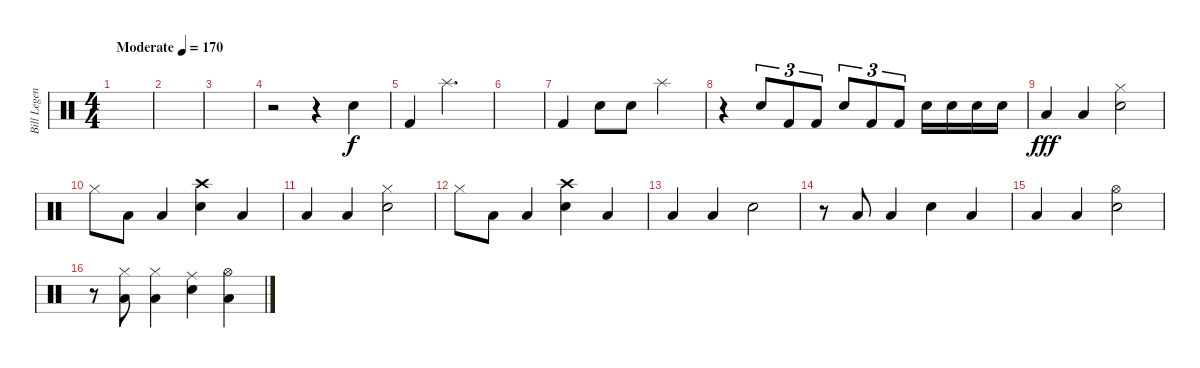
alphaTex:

\track ("Bill Legend" "Bill Legen") {instrument percussion}
\staff {score}
\articulation defaults
\ts (4 4)
\tempo (170 "Moderate")
\clef neutral
\ks c
|
|
|
r.2 r.4 "Electric Snare (hit)".4 |
"Kick (hit) 2".4 "Splash (hit)".2{d} |
|
"Kick (hit) 2".4 "Electric Snare (hit)".8 "Electric Snare (hit)".8 "Splash (hit)".2 |
r.4 "Electric Snare (hit)".8{tu (3 2) dy f} "Kick (hit) 2".8{tu (3 2)} "Kick (hit) 2".8{tu (3 2)} "Electric Snare (hit)".8{tu (3 2)} "Kick (hit) 2".8{tu (3 2)} "Kick (hit) 2".8{tu (3 2)} "Electric Snare (hit)".16 "Electric Snare (hit)".16 "Electric Snare (hit)".16 "Electric Snare (hit)".16 |
"Low Floor Tom (hit)".4{dy fff} "Low Floor Tom (hit)".4 ("Electric Snare (hit)" "Hi-Hat (closed)").2 |
"Hi-Hat (closed)".8 "Low Floor Tom (hit)".8 "Low Floor Tom (hit)".4 ("Electric Snare (hit)" "Crash high (hit)").4 "Low Floor Tom (hit)".4 |
"Low Floor Tom (hit)".4 "Low Floor Tom (hit)".4 ("Electric Snare (hit)" "Hi-Hat (closed)").2 |
"Hi-Hat (closed)".8 "Low Floor Tom (hit)".8 "Low Floor Tom (hit)".4 ("Electric Snare (hit)" "Crash high (hit)").4 "Low Floor Tom (hit)".4 |
"Low Floor Tom (hit)".4 "Low Floor Tom (hit)".4 "Electric Snare (hit)".2 |
r.8 "Low Floor Tom (hit)".8 "Low Floor Tom (hit)".4 "Electric Snare (hit)".4 "Low Floor Tom (hit)".4 |
"Low Floor Tom (hit)".4 "Low Floor Tom (hit)".4 ("Electric Snare (hit)" "Hi-Hat (open)").2 |
r.8 ("Low Floor Tom (hit)" "Hi-Hat (closed)").8 ("Low Floor Tom (hit)" "Hi-Hat (closed)").4 ("Electric Snare (hit)" "Ride (middle)").4 ("Low Floor Tom (hit)" "Hi-Hat (open)").4
